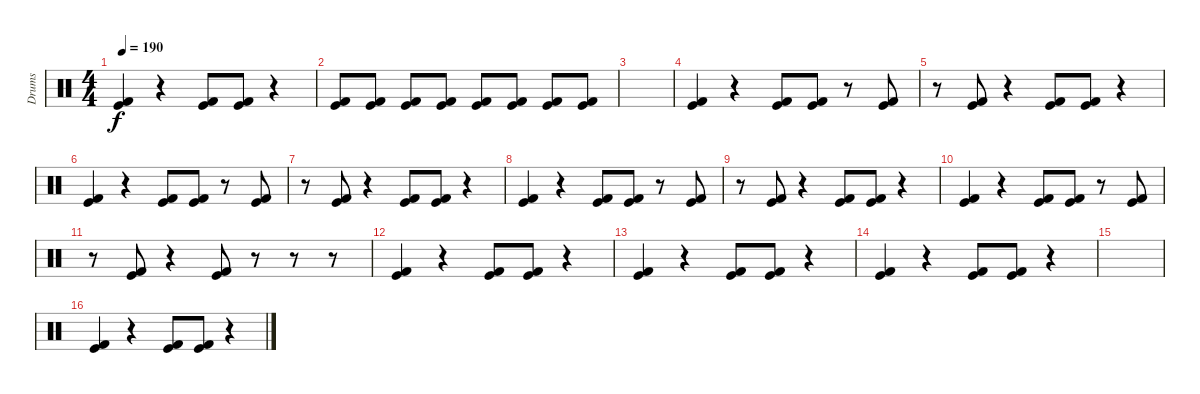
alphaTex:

\track ("Drums" "Drums") {instrument percussion}
\staff {score}
\articulation defaults
\ts (4 4)
\tempo 190
\clef neutral
\ks c
("Kick (hit) 2" "Kick (hit)").4{dy f} r.4 ("Kick (hit) 2" "Kick (hit)").8 ("Kick (hit) 2" "Kick (hit)").8 r.4 |
("Kick (hit) 2" "Kick (hit)").8 ("Kick (hit) 2" "Kick (hit)").8 ("Kick (hit) 2" "Kick (hit)").8 ("Kick (hit) 2" "Kick (hit)").8 ("Kick (hit) 2" "Kick (hit)").8 ("Kick (hit) 2" "Kick (hit)").8 ("Kick (hit) 2" "Kick (hit)").8 ("Kick (hit) 2" "Kick (hit)").8 |
|
("Kick (hit) 2" "Kick (hit)").4 r.4 ("Kick (hit) 2" "Kick (hit)").8 ("Kick (hit) 2" "Kick (hit)").8 r.8 ("Kick (hit) 2" "Kick (hit)").8 |
r.8 ("Kick (hit) 2" "Kick (hit)").8 r.4 ("Kick (hit) 2" "Kick (hit)").8 ("Kick (hit) 2" "Kick (hit)").8 r.4 |
("Kick (hit) 2" "Kick (hit)").4 r.4 ("Kick (hit) 2" "Kick (hit)").8 ("Kick (hit) 2" "Kick (hit)").8 r.8 ("Kick (hit) 2" "Kick (hit)").8 |
r.8 ("Kick (hit) 2" "Kick (hit)").8 r.4 ("Kick (hit) 2" "Kick (hit)").8 ("Kick (hit) 2" "Kick (hit)").8 r.4 |
("Kick (hit) 2" "Kick (hit)").4 r.4 ("Kick (hit) 2" "Kick (hit)").8 ("Kick (hit) 2" "Kick (hit)").8 r.8 ("Kick (hit) 2" "Kick (hit)").8 |
r.8 ("Kick (hit) 2" "Kick (hit)").8 r.4 ("Kick (hit) 2" "Kick (hit)").8 ("Kick (hit) 2" "Kick (hit)").8 r.4 |
("Kick (hit) 2" "Kick (hit)").4 r.4 ("Kick (hit) 2" "Kick (hit)").8 ("Kick (hit) 2" "Kick (hit)").8 r.8 ("Kick (hit) 2" "Kick (hit)").8 |
r.8 ("Kick (hit) 2" "Kick (hit)").8 r.4 ("Kick (hit) 2" "Kick (hit)").8 r.8 r.8 r.8 |
("Kick (hit) 2" "Kick (hit)").4 r.4 ("Kick (hit) 2" "Kick (hit)").8 ("Kick (hit) 2" "Kick (hit)").8 r.4 |
("Kick (hit) 2" "Kick (hit)").4 r.4 ("Kick (hit) 2" "Kick (hit)").8 ("Kick (hit) 2" "Kick (hit)").8 r.4 |
("Kick (hit) 2" "Kick (hit)").4 r.4 ("Kick (hit) 2" "Kick (hit)").8 ("Kick (hit) 2" "Kick (hit)").8 r.4 |
|
("Kick (hit) 2" "Kick (hit)").4 r.4 ("Kick (hit) 2" "Kick (hit)").8 ("Kick (hit) 2" "Kick (hit)").8 r.4
